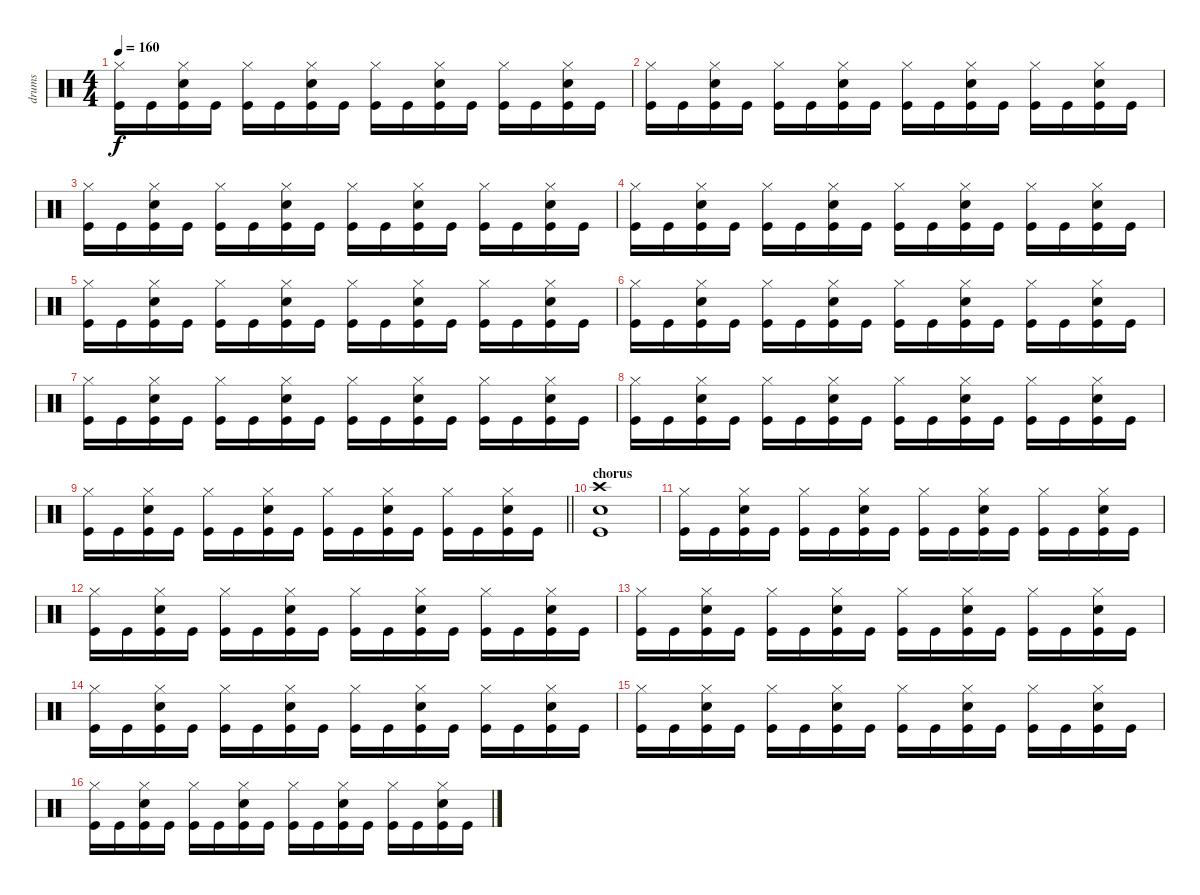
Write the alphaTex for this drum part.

\track ("drums" "drums") {instrument percussion}
\staff {score}
\articulation defaults
\ts (4 4)
\tempo 160
\clef neutral
\ks c
("Kick (hit)" "Hi-Hat (closed)").16{dy f} "Kick (hit)".16 ("Kick (hit)" "Hi-Hat (closed)" "Snare (hit) 2").16 "Kick (hit)".16 ("Kick (hit)" "Hi-Hat (closed)").16 "Kick (hit)".16 ("Kick (hit)" "Hi-Hat (closed)" "Snare (hit) 2").16 "Kick (hit)".16 ("Kick (hit)" "Hi-Hat (closed)").16 "Kick (hit)".16 ("Kick (hit)" "Hi-Hat (closed)" "Snare (hit) 2").16 "Kick (hit)".16 ("Kick (hit)" "Hi-Hat (closed)").16 "Kick (hit)".16 ("Kick (hit)" "Hi-Hat (closed)" "Snare (hit) 2").16 "Kick (hit)".16 |
("Kick (hit)" "Hi-Hat (closed)").16 "Kick (hit)".16 ("Kick (hit)" "Hi-Hat (closed)" "Snare (hit) 2").16 "Kick (hit)".16 ("Kick (hit)" "Hi-Hat (closed)").16 "Kick (hit)".16 ("Kick (hit)" "Hi-Hat (closed)" "Snare (hit) 2").16 "Kick (hit)".16 ("Kick (hit)" "Hi-Hat (closed)").16 "Kick (hit)".16 ("Kick (hit)" "Hi-Hat (closed)" "Snare (hit) 2").16 "Kick (hit)".16 ("Kick (hit)" "Hi-Hat (closed)").16 "Kick (hit)".16 ("Kick (hit)" "Hi-Hat (closed)" "Snare (hit) 2").16 "Kick (hit)".16 |
("Kick (hit)" "Hi-Hat (closed)").16 "Kick (hit)".16 ("Kick (hit)" "Hi-Hat (closed)" "Snare (hit) 2").16 "Kick (hit)".16 ("Kick (hit)" "Hi-Hat (closed)").16 "Kick (hit)".16 ("Kick (hit)" "Hi-Hat (closed)" "Snare (hit) 2").16 "Kick (hit)".16 ("Kick (hit)" "Hi-Hat (closed)").16 "Kick (hit)".16 ("Kick (hit)" "Hi-Hat (closed)" "Snare (hit) 2").16 "Kick (hit)".16 ("Kick (hit)" "Hi-Hat (closed)").16 "Kick (hit)".16 ("Kick (hit)" "Hi-Hat (closed)" "Snare (hit) 2").16 "Kick (hit)".16 |
("Kick (hit)" "Hi-Hat (closed)").16 "Kick (hit)".16 ("Kick (hit)" "Hi-Hat (closed)" "Snare (hit) 2").16 "Kick (hit)".16 ("Kick (hit)" "Hi-Hat (closed)").16 "Kick (hit)".16 ("Kick (hit)" "Hi-Hat (closed)" "Snare (hit) 2").16 "Kick (hit)".16 ("Kick (hit)" "Hi-Hat (closed)").16 "Kick (hit)".16 ("Kick (hit)" "Hi-Hat (closed)" "Snare (hit) 2").16 "Kick (hit)".16 ("Kick (hit)" "Hi-Hat (closed)").16 "Kick (hit)".16 ("Kick (hit)" "Hi-Hat (closed)" "Snare (hit) 2").16 "Kick (hit)".16 |
("Kick (hit)" "Hi-Hat (closed)").16 "Kick (hit)".16 ("Kick (hit)" "Hi-Hat (closed)" "Snare (hit) 2").16 "Kick (hit)".16 ("Kick (hit)" "Hi-Hat (closed)").16 "Kick (hit)".16 ("Kick (hit)" "Hi-Hat (closed)" "Snare (hit) 2").16 "Kick (hit)".16 ("Kick (hit)" "Hi-Hat (closed)").16 "Kick (hit)".16 ("Kick (hit)" "Hi-Hat (closed)" "Snare (hit) 2").16 "Kick (hit)".16 ("Kick (hit)" "Hi-Hat (closed)").16 "Kick (hit)".16 ("Kick (hit)" "Hi-Hat (closed)" "Snare (hit) 2").16 "Kick (hit)".16 |
("Kick (hit)" "Hi-Hat (closed)").16 "Kick (hit)".16 ("Kick (hit)" "Hi-Hat (closed)" "Snare (hit) 2").16 "Kick (hit)".16 ("Kick (hit)" "Hi-Hat (closed)").16 "Kick (hit)".16 ("Kick (hit)" "Hi-Hat (closed)" "Snare (hit) 2").16 "Kick (hit)".16 ("Kick (hit)" "Hi-Hat (closed)").16 "Kick (hit)".16 ("Kick (hit)" "Hi-Hat (closed)" "Snare (hit) 2").16 "Kick (hit)".16 ("Kick (hit)" "Hi-Hat (closed)").16 "Kick (hit)".16 ("Kick (hit)" "Hi-Hat (closed)" "Snare (hit) 2").16 "Kick (hit)".16 |
("Kick (hit)" "Hi-Hat (closed)").16 "Kick (hit)".16 ("Kick (hit)" "Hi-Hat (closed)" "Snare (hit) 2").16 "Kick (hit)".16 ("Kick (hit)" "Hi-Hat (closed)").16 "Kick (hit)".16 ("Kick (hit)" "Hi-Hat (closed)" "Snare (hit) 2").16 "Kick (hit)".16 ("Kick (hit)" "Hi-Hat (closed)").16 "Kick (hit)".16 ("Kick (hit)" "Hi-Hat (closed)" "Snare (hit) 2").16 "Kick (hit)".16 ("Kick (hit)" "Hi-Hat (closed)").16 "Kick (hit)".16 ("Kick (hit)" "Hi-Hat (closed)" "Snare (hit) 2").16 "Kick (hit)".16 |
("Kick (hit)" "Hi-Hat (closed)").16 "Kick (hit)".16 ("Kick (hit)" "Hi-Hat (closed)" "Snare (hit) 2").16 "Kick (hit)".16 ("Kick (hit)" "Hi-Hat (closed)").16 "Kick (hit)".16 ("Kick (hit)" "Hi-Hat (closed)" "Snare (hit) 2").16 "Kick (hit)".16 ("Kick (hit)" "Hi-Hat (closed)").16 "Kick (hit)".16 ("Kick (hit)" "Hi-Hat (closed)" "Snare (hit) 2").16 "Kick (hit)".16 ("Kick (hit)" "Hi-Hat (closed)").16 "Kick (hit)".16 ("Kick (hit)" "Hi-Hat (closed)" "Snare (hit) 2").16 "Kick (hit)".16 |
\barLineRight lightlight
("Kick (hit)" "Hi-Hat (closed)").16 "Kick (hit)".16 ("Kick (hit)" "Hi-Hat (closed)" "Snare (hit) 2").16 "Kick (hit)".16 ("Kick (hit)" "Hi-Hat (closed)").16 "Kick (hit)".16 ("Kick (hit)" "Hi-Hat (closed)" "Snare (hit) 2").16 "Kick (hit)".16 ("Kick (hit)" "Hi-Hat (closed)").16 "Kick (hit)".16 ("Kick (hit)" "Hi-Hat (closed)" "Snare (hit) 2").16 "Kick (hit)".16 ("Kick (hit)" "Hi-Hat (closed)").16 "Kick (hit)".16 ("Kick (hit)" "Hi-Hat (closed)" "Snare (hit) 2").16 "Kick (hit)".16 |
\section ("" "chorus")
("Kick (hit)" "Snare (hit) 2" "Crash high (hit)").1 |
("Kick (hit)" "Hi-Hat (closed)").16 "Kick (hit)".16 ("Kick (hit)" "Hi-Hat (closed)" "Snare (hit) 2").16 "Kick (hit)".16 ("Kick (hit)" "Hi-Hat (closed)").16 "Kick (hit)".16 ("Kick (hit)" "Hi-Hat (closed)" "Snare (hit) 2").16 "Kick (hit)".16 ("Kick (hit)" "Hi-Hat (closed)").16 "Kick (hit)".16 ("Kick (hit)" "Hi-Hat (closed)" "Snare (hit) 2").16 "Kick (hit)".16 ("Kick (hit)" "Hi-Hat (closed)").16 "Kick (hit)".16 ("Kick (hit)" "Hi-Hat (closed)" "Snare (hit) 2").16 "Kick (hit)".16 |
("Kick (hit)" "Hi-Hat (closed)").16 "Kick (hit)".16 ("Kick (hit)" "Hi-Hat (closed)" "Snare (hit) 2").16 "Kick (hit)".16 ("Kick (hit)" "Hi-Hat (closed)").16 "Kick (hit)".16 ("Kick (hit)" "Hi-Hat (closed)" "Snare (hit) 2").16 "Kick (hit)".16 ("Kick (hit)" "Hi-Hat (closed)").16 "Kick (hit)".16 ("Kick (hit)" "Hi-Hat (closed)" "Snare (hit) 2").16 "Kick (hit)".16 ("Kick (hit)" "Hi-Hat (closed)").16 "Kick (hit)".16 ("Kick (hit)" "Hi-Hat (closed)" "Snare (hit) 2").16 "Kick (hit)".16 |
("Kick (hit)" "Hi-Hat (closed)").16 "Kick (hit)".16 ("Kick (hit)" "Hi-Hat (closed)" "Snare (hit) 2").16 "Kick (hit)".16 ("Kick (hit)" "Hi-Hat (closed)").16 "Kick (hit)".16 ("Kick (hit)" "Hi-Hat (closed)" "Snare (hit) 2").16 "Kick (hit)".16 ("Kick (hit)" "Hi-Hat (closed)").16 "Kick (hit)".16 ("Kick (hit)" "Hi-Hat (closed)" "Snare (hit) 2").16 "Kick (hit)".16 ("Kick (hit)" "Hi-Hat (closed)").16 "Kick (hit)".16 ("Kick (hit)" "Hi-Hat (closed)" "Snare (hit) 2").16 "Kick (hit)".16 |
("Kick (hit)" "Hi-Hat (closed)").16 "Kick (hit)".16 ("Kick (hit)" "Hi-Hat (closed)" "Snare (hit) 2").16 "Kick (hit)".16 ("Kick (hit)" "Hi-Hat (closed)").16 "Kick (hit)".16 ("Kick (hit)" "Hi-Hat (closed)" "Snare (hit) 2").16 "Kick (hit)".16 ("Kick (hit)" "Hi-Hat (closed)").16 "Kick (hit)".16 ("Kick (hit)" "Hi-Hat (closed)" "Snare (hit) 2").16 "Kick (hit)".16 ("Kick (hit)" "Hi-Hat (closed)").16 "Kick (hit)".16 ("Kick (hit)" "Hi-Hat (closed)" "Snare (hit) 2").16 "Kick (hit)".16 |
("Kick (hit)" "Hi-Hat (closed)").16 "Kick (hit)".16 ("Kick (hit)" "Hi-Hat (closed)" "Snare (hit) 2").16 "Kick (hit)".16 ("Kick (hit)" "Hi-Hat (closed)").16 "Kick (hit)".16 ("Kick (hit)" "Hi-Hat (closed)" "Snare (hit) 2").16 "Kick (hit)".16 ("Kick (hit)" "Hi-Hat (closed)").16 "Kick (hit)".16 ("Kick (hit)" "Hi-Hat (closed)" "Snare (hit) 2").16 "Kick (hit)".16 ("Kick (hit)" "Hi-Hat (closed)").16 "Kick (hit)".16 ("Kick (hit)" "Hi-Hat (closed)" "Snare (hit) 2").16 "Kick (hit)".16 |
("Kick (hit)" "Hi-Hat (closed)").16 "Kick (hit)".16 ("Kick (hit)" "Hi-Hat (closed)" "Snare (hit) 2").16 "Kick (hit)".16 ("Kick (hit)" "Hi-Hat (closed)").16 "Kick (hit)".16 ("Kick (hit)" "Hi-Hat (closed)" "Snare (hit) 2").16 "Kick (hit)".16 ("Kick (hit)" "Hi-Hat (closed)").16 "Kick (hit)".16 ("Kick (hit)" "Hi-Hat (closed)" "Snare (hit) 2").16 "Kick (hit)".16 ("Kick (hit)" "Hi-Hat (closed)").16 "Kick (hit)".16 ("Kick (hit)" "Hi-Hat (closed)" "Snare (hit) 2").16 "Kick (hit)".16
